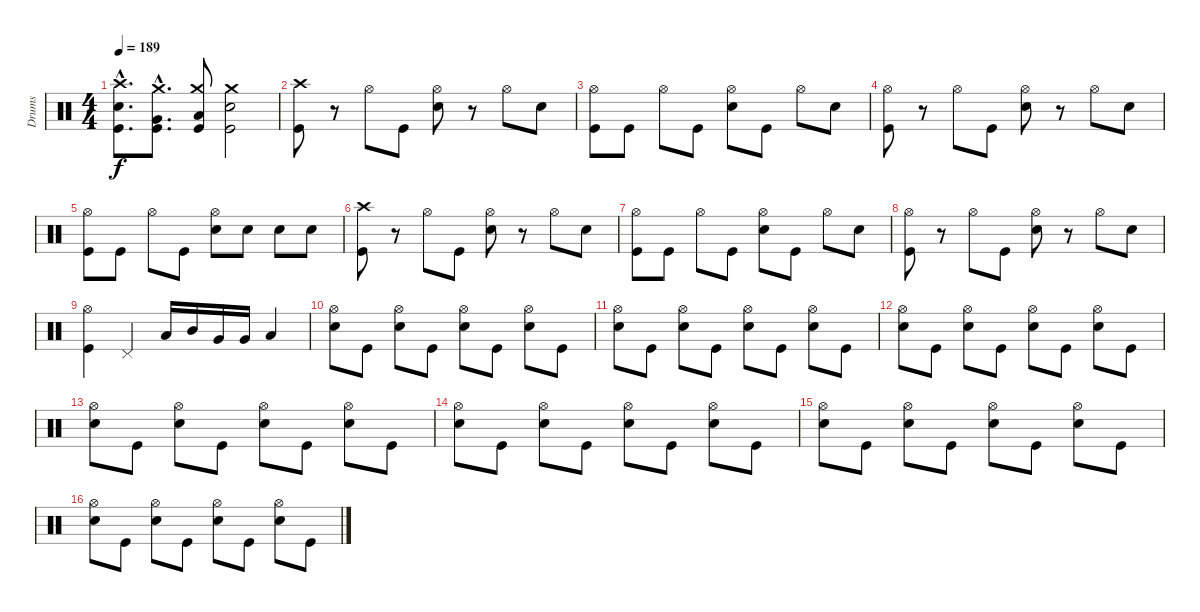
\track ("Drums" "Drums") {instrument percussion}
\staff {score}
\articulation defaults
\ts (4 4)
\tempo 189
\clef neutral
\ks c
("Crash high (hit)"{hac} "Electric Snare (hit)"{hac} "Kick (hit)"{hac}).8{d dy f} ("Crash medium (hit)"{hac} "Very Low Tom (hit)"{hac} "Kick (hit)"{hac}).8{d} ("Crash medium (hit)" "Low Floor Tom (hit)" "Kick (hit)").8 ("Crash medium (hit)" "Electric Snare (hit)" "Kick (hit)").2 |
("Crash high (hit)" "Kick (hit)").8 r.8 "Hi-Hat (open)".8 "Kick (hit)".8 ("Hi-Hat (open)" "Electric Snare (hit)").8 r.8 "Hi-Hat (open)".8 "Electric Snare (hit)".8 |
("Hi-Hat (open)" "Kick (hit)").8 "Kick (hit)".8 "Hi-Hat (open)".8 "Kick (hit)".8 ("Hi-Hat (open)" "Electric Snare (hit)").8 "Kick (hit)".8 "Hi-Hat (open)".8 "Electric Snare (hit)".8 |
("Hi-Hat (open)" "Kick (hit)").8 r.8 "Hi-Hat (open)".8 "Kick (hit)".8 ("Hi-Hat (open)" "Electric Snare (hit)").8 r.8 "Hi-Hat (open)".8 "Electric Snare (hit)".8 |
("Hi-Hat (open)" "Kick (hit)").8 "Kick (hit)".8 "Hi-Hat (open)".8 "Kick (hit)".8 ("Hi-Hat (open)" "Electric Snare (hit)").8 "Electric Snare (hit)".8 "Electric Snare (hit)".8 "Electric Snare (hit)".8 |
("Crash high (hit)" "Kick (hit)").8 r.8 "Hi-Hat (open)".8 "Kick (hit)".8 ("Hi-Hat (open)" "Electric Snare (hit)").8 r.8 "Hi-Hat (open)".8 "Electric Snare (hit)".8 |
("Hi-Hat (open)" "Kick (hit)").8 "Kick (hit)".8 "Hi-Hat (open)".8 "Kick (hit)".8 ("Hi-Hat (open)" "Electric Snare (hit)").8 "Kick (hit)".8 "Hi-Hat (open)".8 "Electric Snare (hit)".8 |
("Hi-Hat (open)" "Kick (hit)").8 r.8 "Hi-Hat (open)".8 "Kick (hit)".8 ("Hi-Hat (open)" "Electric Snare (hit)").8 r.8 "Hi-Hat (open)".8 "Electric Snare (hit)".8 |
("Hi-Hat (open)" "Kick (hit)").4 "Pedal Hi-Hat (hit)".4 "Low Tom (hit)".16 "Mid Tom (hit)".16 "Very Low Tom (hit)".16 "Very Low Tom (hit)".16 "Low Floor Tom (hit)".4 |
("Hi-Hat (open)" "Electric Snare (hit)").8 "Kick (hit)".8 ("Hi-Hat (open)" "Electric Snare (hit)").8 "Kick (hit)".8 ("Hi-Hat (open)" "Electric Snare (hit)").8 "Kick (hit)".8 ("Hi-Hat (open)" "Electric Snare (hit)").8 "Kick (hit)".8 |
("Hi-Hat (open)" "Electric Snare (hit)").8 "Kick (hit)".8 ("Hi-Hat (open)" "Electric Snare (hit)").8 "Kick (hit)".8 ("Hi-Hat (open)" "Electric Snare (hit)").8 "Kick (hit)".8 ("Hi-Hat (open)" "Electric Snare (hit)").8 "Kick (hit)".8 |
("Hi-Hat (open)" "Electric Snare (hit)").8 "Kick (hit)".8 ("Hi-Hat (open)" "Electric Snare (hit)").8 "Kick (hit)".8 ("Hi-Hat (open)" "Electric Snare (hit)").8 "Kick (hit)".8 ("Hi-Hat (open)" "Electric Snare (hit)").8 "Kick (hit)".8 |
("Hi-Hat (open)" "Electric Snare (hit)").8 "Kick (hit)".8 ("Hi-Hat (open)" "Electric Snare (hit)").8 "Kick (hit)".8 ("Hi-Hat (open)" "Electric Snare (hit)").8 "Kick (hit)".8 ("Hi-Hat (open)" "Electric Snare (hit)").8 "Kick (hit)".8 |
("Hi-Hat (open)" "Electric Snare (hit)").8 "Kick (hit)".8 ("Hi-Hat (open)" "Electric Snare (hit)").8 "Kick (hit)".8 ("Hi-Hat (open)" "Electric Snare (hit)").8 "Kick (hit)".8 ("Hi-Hat (open)" "Electric Snare (hit)").8 "Kick (hit)".8 |
("Hi-Hat (open)" "Electric Snare (hit)").8 "Kick (hit)".8 ("Hi-Hat (open)" "Electric Snare (hit)").8 "Kick (hit)".8 ("Hi-Hat (open)" "Electric Snare (hit)").8 "Kick (hit)".8 ("Hi-Hat (open)" "Electric Snare (hit)").8 "Kick (hit)".8 |
("Hi-Hat (open)" "Electric Snare (hit)").8 "Kick (hit)".8 ("Hi-Hat (open)" "Electric Snare (hit)").8 "Kick (hit)".8 ("Hi-Hat (open)" "Electric Snare (hit)").8 "Kick (hit)".8 ("Hi-Hat (open)" "Electric Snare (hit)").8 "Kick (hit)".8
